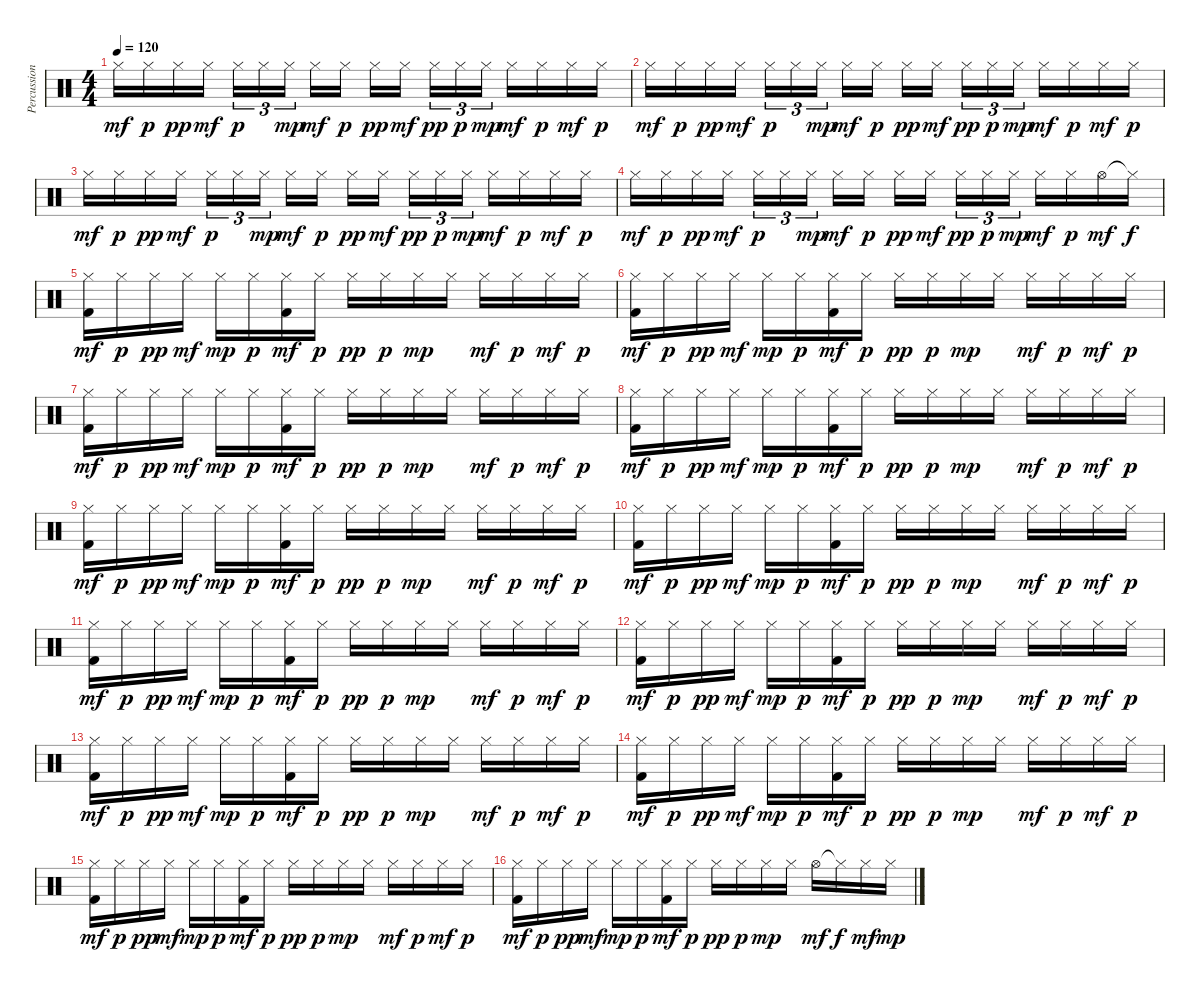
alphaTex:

\track ("Percussion" "Percussion") {instrument percussion}
\staff {score}
\articulation defaults
\ts (4 4)
\tempo 120
\clef neutral
\ks c "Hi-Hat (closed)".16{dy mf} "Hi-Hat (closed)".16{dy p} "Hi-Hat (closed)".16{dy pp} "Hi-Hat (closed)".16{dy mf} "Hi-Hat (closed)".16{tu (3 2) dy p} "Hi-Hat (closed)".16{tu (3 2)} "Hi-Hat (closed)".16{tu (3 2) dy mp beam splitsecondary} "Hi-Hat (closed)".16{dy mf} "Hi-Hat (closed)".16{dy p} "Hi-Hat (closed)".16{dy pp} "Hi-Hat (closed)".16{dy mf beam splitsecondary} "Hi-Hat (closed)".16{tu (3 2) dy pp} "Hi-Hat (closed)".16{tu (3 2) dy p} "Hi-Hat (closed)".16{tu (3 2) dy mp} "Hi-Hat (closed)".16{dy mf} "Hi-Hat (closed)".16{dy p} "Hi-Hat (closed)".16{dy mf} "Hi-Hat (closed)".16{dy p}
|
"Hi-Hat (closed)".16{dy mf} "Hi-Hat (closed)".16{dy p} "Hi-Hat (closed)".16{dy pp} "Hi-Hat (closed)".16{dy mf} "Hi-Hat (closed)".16{tu (3 2) dy p} "Hi-Hat (closed)".16{tu (3 2)} "Hi-Hat (closed)".16{tu (3 2) dy mp beam splitsecondary} "Hi-Hat (closed)".16{dy mf} "Hi-Hat (closed)".16{dy p} "Hi-Hat (closed)".16{dy pp} "Hi-Hat (closed)".16{dy mf beam splitsecondary} "Hi-Hat (closed)".16{tu (3 2) dy pp} "Hi-Hat (closed)".16{tu (3 2) dy p} "Hi-Hat (closed)".16{tu (3 2) dy mp} "Hi-Hat (closed)".16{dy mf} "Hi-Hat (closed)".16{dy p} "Hi-Hat (closed)".16{dy mf} "Hi-Hat (closed)".16{dy p} |
"Hi-Hat (closed)".16{dy mf} "Hi-Hat (closed)".16{dy p} "Hi-Hat (closed)".16{dy pp} "Hi-Hat (closed)".16{dy mf} "Hi-Hat (closed)".16{tu (3 2) dy p} "Hi-Hat (closed)".16{tu (3 2)} "Hi-Hat (closed)".16{tu (3 2) dy mp beam splitsecondary} "Hi-Hat (closed)".16{dy mf} "Hi-Hat (closed)".16{dy p} "Hi-Hat (closed)".16{dy pp} "Hi-Hat (closed)".16{dy mf beam splitsecondary} "Hi-Hat (closed)".16{tu (3 2) dy pp} "Hi-Hat (closed)".16{tu (3 2) dy p} "Hi-Hat (closed)".16{tu (3 2) dy mp} "Hi-Hat (closed)".16{dy mf} "Hi-Hat (closed)".16{dy p} "Hi-Hat (closed)".16{dy mf} "Hi-Hat (closed)".16{dy p} |
"Hi-Hat (closed)".16{dy mf} "Hi-Hat (closed)".16{dy p} "Hi-Hat (closed)".16{dy pp} "Hi-Hat (closed)".16{dy mf} "Hi-Hat (closed)".16{tu (3 2) dy p} "Hi-Hat (closed)".16{tu (3 2)} "Hi-Hat (closed)".16{tu (3 2) dy mp beam splitsecondary} "Hi-Hat (closed)".16{dy mf} "Hi-Hat (closed)".16{dy p} "Hi-Hat (closed)".16{dy pp} "Hi-Hat (closed)".16{dy mf beam splitsecondary} "Hi-Hat (closed)".16{tu (3 2) dy pp} "Hi-Hat (closed)".16{tu (3 2) dy p} "Hi-Hat (closed)".16{tu (3 2) dy mp} "Hi-Hat (closed)".16{dy mf} "Hi-Hat (closed)".16{dy p} "Hi-Hat (open)".16{dy mf} "Hi-Hat (closed)"{t}.16{dy f} |
("Hi-Hat (closed)" "Kick (hit) 2").16{dy mf} "Hi-Hat (closed)".16{dy p} "Hi-Hat (closed)".16{dy pp} "Hi-Hat (closed)".16{dy mf} "Hi-Hat (closed)".16{dy mp} "Hi-Hat (closed)".16{dy p} ("Hi-Hat (closed)" "Kick (hit) 2").16{dy mf} "Hi-Hat (closed)".16{dy p} "Hi-Hat (closed)".16{dy pp} "Hi-Hat (closed)".16{dy p} "Hi-Hat (closed)".16{dy mp} "Hi-Hat (closed)".16 "Hi-Hat (closed)".16{dy mf} "Hi-Hat (closed)".16{dy p} "Hi-Hat (closed)".16{dy mf} "Hi-Hat (closed)".16{dy p} |
("Hi-Hat (closed)" "Kick (hit) 2").16{dy mf} "Hi-Hat (closed)".16{dy p} "Hi-Hat (closed)".16{dy pp} "Hi-Hat (closed)".16{dy mf} "Hi-Hat (closed)".16{dy mp} "Hi-Hat (closed)".16{dy p} ("Hi-Hat (closed)" "Kick (hit) 2").16{dy mf} "Hi-Hat (closed)".16{dy p} "Hi-Hat (closed)".16{dy pp} "Hi-Hat (closed)".16{dy p} "Hi-Hat (closed)".16{dy mp} "Hi-Hat (closed)".16 "Hi-Hat (closed)".16{dy mf} "Hi-Hat (closed)".16{dy p} "Hi-Hat (closed)".16{dy mf} "Hi-Hat (closed)".16{dy p} |
("Hi-Hat (closed)" "Kick (hit) 2").16{dy mf} "Hi-Hat (closed)".16{dy p} "Hi-Hat (closed)".16{dy pp} "Hi-Hat (closed)".16{dy mf} "Hi-Hat (closed)".16{dy mp} "Hi-Hat (closed)".16{dy p} ("Hi-Hat (closed)" "Kick (hit) 2").16{dy mf} "Hi-Hat (closed)".16{dy p} "Hi-Hat (closed)".16{dy pp} "Hi-Hat (closed)".16{dy p} "Hi-Hat (closed)".16{dy mp} "Hi-Hat (closed)".16 "Hi-Hat (closed)".16{dy mf} "Hi-Hat (closed)".16{dy p} "Hi-Hat (closed)".16{dy mf} "Hi-Hat (closed)".16{dy p} |
("Hi-Hat (closed)" "Kick (hit) 2").16{dy mf} "Hi-Hat (closed)".16{dy p} "Hi-Hat (closed)".16{dy pp} "Hi-Hat (closed)".16{dy mf} "Hi-Hat (closed)".16{dy mp} "Hi-Hat (closed)".16{dy p} ("Hi-Hat (closed)" "Kick (hit) 2").16{dy mf} "Hi-Hat (closed)".16{dy p} "Hi-Hat (closed)".16{dy pp} "Hi-Hat (closed)".16{dy p} "Hi-Hat (closed)".16{dy mp} "Hi-Hat (closed)".16 "Hi-Hat (closed)".16{dy mf} "Hi-Hat (closed)".16{dy p} "Hi-Hat (closed)".16{dy mf} "Hi-Hat (closed)".16{dy p} |
("Hi-Hat (closed)" "Kick (hit) 2").16{dy mf} "Hi-Hat (closed)".16{dy p} "Hi-Hat (closed)".16{dy pp} "Hi-Hat (closed)".16{dy mf} "Hi-Hat (closed)".16{dy mp} "Hi-Hat (closed)".16{dy p} ("Hi-Hat (closed)" "Kick (hit) 2").16{dy mf} "Hi-Hat (closed)".16{dy p} "Hi-Hat (closed)".16{dy pp} "Hi-Hat (closed)".16{dy p} "Hi-Hat (closed)".16{dy mp} "Hi-Hat (closed)".16 "Hi-Hat (closed)".16{dy mf} "Hi-Hat (closed)".16{dy p} "Hi-Hat (closed)".16{dy mf} "Hi-Hat (closed)".16{dy p} |
("Hi-Hat (closed)" "Kick (hit) 2").16{dy mf} "Hi-Hat (closed)".16{dy p} "Hi-Hat (closed)".16{dy pp} "Hi-Hat (closed)".16{dy mf} "Hi-Hat (closed)".16{dy mp} "Hi-Hat (closed)".16{dy p} ("Hi-Hat (closed)" "Kick (hit) 2").16{dy mf} "Hi-Hat (closed)".16{dy p} "Hi-Hat (closed)".16{dy pp} "Hi-Hat (closed)".16{dy p} "Hi-Hat (closed)".16{dy mp} "Hi-Hat (closed)".16 "Hi-Hat (closed)".16{dy mf} "Hi-Hat (closed)".16{dy p} "Hi-Hat (closed)".16{dy mf} "Hi-Hat (closed)".16{dy p} |
("Hi-Hat (closed)" "Kick (hit) 2").16{dy mf} "Hi-Hat (closed)".16{dy p} "Hi-Hat (closed)".16{dy pp} "Hi-Hat (closed)".16{dy mf} "Hi-Hat (closed)".16{dy mp} "Hi-Hat (closed)".16{dy p} ("Hi-Hat (closed)" "Kick (hit) 2").16{dy mf} "Hi-Hat (closed)".16{dy p} "Hi-Hat (closed)".16{dy pp} "Hi-Hat (closed)".16{dy p} "Hi-Hat (closed)".16{dy mp} "Hi-Hat (closed)".16 "Hi-Hat (closed)".16{dy mf} "Hi-Hat (closed)".16{dy p} "Hi-Hat (closed)".16{dy mf} "Hi-Hat (closed)".16{dy p} |
("Hi-Hat (closed)" "Kick (hit) 2").16{dy mf} "Hi-Hat (closed)".16{dy p} "Hi-Hat (closed)".16{dy pp} "Hi-Hat (closed)".16{dy mf} "Hi-Hat (closed)".16{dy mp} "Hi-Hat (closed)".16{dy p} ("Hi-Hat (closed)" "Kick (hit) 2").16{dy mf} "Hi-Hat (closed)".16{dy p} "Hi-Hat (closed)".16{dy pp} "Hi-Hat (closed)".16{dy p} "Hi-Hat (closed)".16{dy mp} "Hi-Hat (closed)".16 "Hi-Hat (closed)".16{dy mf} "Hi-Hat (closed)".16{dy p} "Hi-Hat (closed)".16{dy mf} "Hi-Hat (closed)".16{dy p} |
("Hi-Hat (closed)" "Kick (hit) 2").16{dy mf} "Hi-Hat (closed)".16{dy p} "Hi-Hat (closed)".16{dy pp} "Hi-Hat (closed)".16{dy mf} "Hi-Hat (closed)".16{dy mp} "Hi-Hat (closed)".16{dy p} ("Hi-Hat (closed)" "Kick (hit) 2").16{dy mf} "Hi-Hat (closed)".16{dy p} "Hi-Hat (closed)".16{dy pp} "Hi-Hat (closed)".16{dy p} "Hi-Hat (closed)".16{dy mp} "Hi-Hat (closed)".16 "Hi-Hat (closed)".16{dy mf} "Hi-Hat (closed)".16{dy p} "Hi-Hat (closed)".16{dy mf} "Hi-Hat (closed)".16{dy p} |
("Hi-Hat (closed)" "Kick (hit) 2").16{dy mf} "Hi-Hat (closed)".16{dy p} "Hi-Hat (closed)".16{dy pp} "Hi-Hat (closed)".16{dy mf} "Hi-Hat (closed)".16{dy mp} "Hi-Hat (closed)".16{dy p} ("Hi-Hat (closed)" "Kick (hit) 2").16{dy mf} "Hi-Hat (closed)".16{dy p} "Hi-Hat (closed)".16{dy pp} "Hi-Hat (closed)".16{dy p} "Hi-Hat (closed)".16{dy mp} "Hi-Hat (closed)".16 "Hi-Hat (closed)".16{dy mf} "Hi-Hat (closed)".16{dy p} "Hi-Hat (closed)".16{dy mf} "Hi-Hat (closed)".16{dy p} |
("Hi-Hat (closed)" "Kick (hit) 2").16{dy mf} "Hi-Hat (closed)".16{dy p} "Hi-Hat (closed)".16{dy pp} "Hi-Hat (closed)".16{dy mf} "Hi-Hat (closed)".16{dy mp} "Hi-Hat (closed)".16{dy p} ("Hi-Hat (closed)" "Kick (hit) 2").16{dy mf} "Hi-Hat (closed)".16{dy p} "Hi-Hat (closed)".16{dy pp} "Hi-Hat (closed)".16{dy p} "Hi-Hat (closed)".16{dy mp} "Hi-Hat (closed)".16 "Hi-Hat (closed)".16{dy mf} "Hi-Hat (closed)".16{dy p} "Hi-Hat (closed)".16{dy mf} "Hi-Hat (closed)".16{dy p} |
("Hi-Hat (closed)" "Kick (hit) 2").16{dy mf} "Hi-Hat (closed)".16{dy p} "Hi-Hat (closed)".16{dy pp} "Hi-Hat (closed)".16{dy mf} "Hi-Hat (closed)".16{dy mp} "Hi-Hat (closed)".16{dy p} ("Hi-Hat (closed)" "Kick (hit) 2").16{dy mf} "Hi-Hat (closed)".16{dy p} "Hi-Hat (closed)".16{dy pp} "Hi-Hat (closed)".16{dy p} "Hi-Hat (closed)".16{dy mp} "Hi-Hat (closed)".16 "Hi-Hat (open)".16{dy mf} "Hi-Hat (closed)"{t}.16{dy f} "Hi-Hat (closed)".16{dy mf} "Hi-Hat (closed)".16{dy mp}
